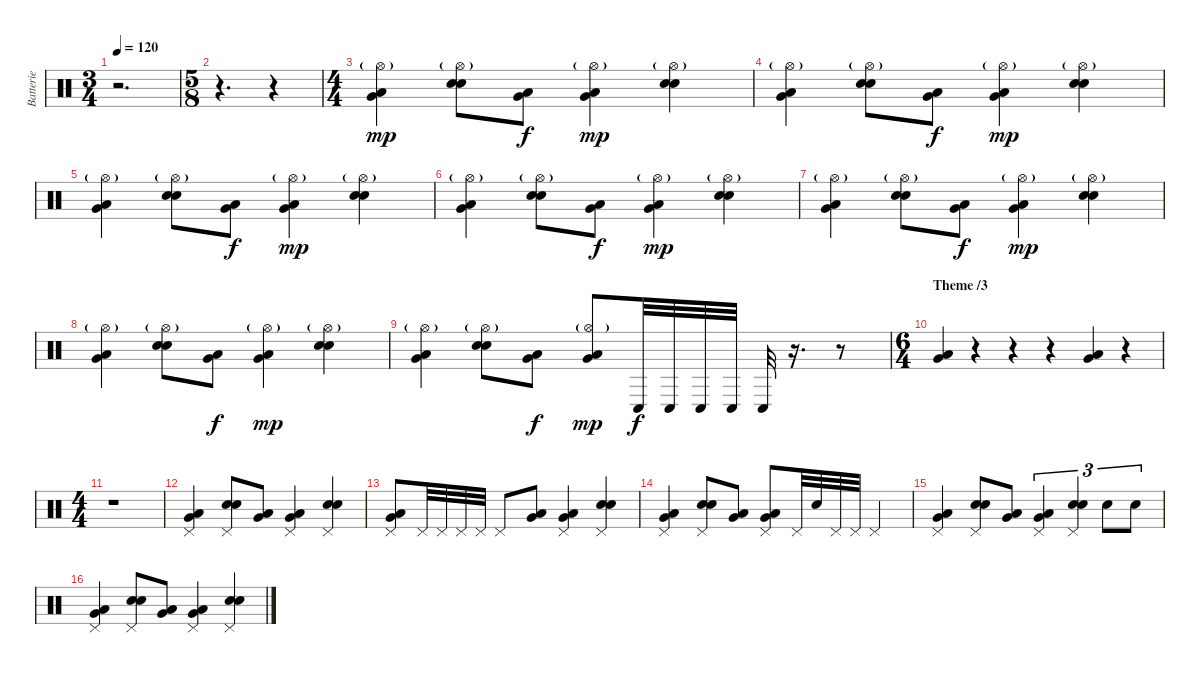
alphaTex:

\track ("Batterie" "Batterie") {instrument percussion}
\staff {score}
\articulation defaults
\ts (3 4)
\tempo 120
\clef neutral
\ks c
r.2{d dy f} |
\ts (5 8)
r.4{d} r.4 |
\ts (4 4)
("Hi-Hat (open)"{g} "Very Low Tom (hit)" "Low Floor Tom (hit)").4{dy mp} ("Hi-Hat (open)"{g} "Electric Snare (hit)" "Electric Snare (hit)").8 ("Very Low Tom (hit)" "Low Floor Tom (hit)").8{dy f} ("Hi-Hat (open)"{g} "Very Low Tom (hit)" "Low Floor Tom (hit)").4{dy mp} ("Hi-Hat (open)"{g} "Electric Snare (hit)" "Electric Snare (hit)").4 |
("Hi-Hat (open)"{g} "Very Low Tom (hit)" "Low Floor Tom (hit)").4 ("Hi-Hat (open)"{g} "Electric Snare (hit)" "Electric Snare (hit)").8 ("Very Low Tom (hit)" "Low Floor Tom (hit)").8{dy f} ("Hi-Hat (open)"{g} "Very Low Tom (hit)" "Low Floor Tom (hit)").4{dy mp} ("Hi-Hat (open)"{g} "Electric Snare (hit)" "Electric Snare (hit)").4 |
("Hi-Hat (open)"{g} "Very Low Tom (hit)" "Low Floor Tom (hit)").4 ("Hi-Hat (open)"{g} "Electric Snare (hit)" "Electric Snare (hit)").8 ("Very Low Tom (hit)" "Low Floor Tom (hit)").8{dy f} ("Hi-Hat (open)"{g} "Very Low Tom (hit)" "Low Floor Tom (hit)").4{dy mp} ("Hi-Hat (open)"{g} "Electric Snare (hit)" "Electric Snare (hit)").4 |
("Hi-Hat (open)"{g} "Very Low Tom (hit)" "Low Floor Tom (hit)").4 ("Hi-Hat (open)"{g} "Electric Snare (hit)" "Electric Snare (hit)").8 ("Very Low Tom (hit)" "Low Floor Tom (hit)").8{dy f} ("Hi-Hat (open)"{g} "Very Low Tom (hit)" "Low Floor Tom (hit)").4{dy mp} ("Hi-Hat (open)"{g} "Electric Snare (hit)" "Electric Snare (hit)").4 |
("Hi-Hat (open)"{g} "Very Low Tom (hit)" "Low Floor Tom (hit)").4 ("Hi-Hat (open)"{g} "Electric Snare (hit)" "Electric Snare (hit)").8 ("Very Low Tom (hit)" "Low Floor Tom (hit)").8{dy f} ("Hi-Hat (open)"{g} "Very Low Tom (hit)" "Low Floor Tom (hit)").4{dy mp} ("Hi-Hat (open)"{g} "Electric Snare (hit)" "Electric Snare (hit)").4 |
("Hi-Hat (open)"{g} "Very Low Tom (hit)" "Low Floor Tom (hit)").4 ("Hi-Hat (open)"{g} "Electric Snare (hit)" "Electric Snare (hit)").8 ("Very Low Tom (hit)" "Low Floor Tom (hit)").8{dy f} ("Hi-Hat (open)"{g} "Very Low Tom (hit)" "Low Floor Tom (hit)").4{dy mp} ("Hi-Hat (open)"{g} "Electric Snare (hit)" "Electric Snare (hit)").4 |
("Hi-Hat (open)"{g} "Very Low Tom (hit)" "Low Floor Tom (hit)").4 ("Hi-Hat (open)"{g} "Electric Snare (hit)" "Electric Snare (hit)").8 ("Very Low Tom (hit)" "Low Floor Tom (hit)").8{dy f} ("Hi-Hat (open)"{g} "Very Low Tom (hit)" "Low Floor Tom (hit)").8{dy mp} "Conga low (hit)".32{dy f} "Conga low (hit)".32 "Conga low (hit)".32 "Conga low (hit)".32 "Conga low (hit)".32 r.16{d} r.8 |
\ts (6 4)
\section ("" "Theme /3")
("Very Low Tom (hit)" "Low Floor Tom (hit)").4 r.4 r.4 r.4 ("Very Low Tom (hit)" "Low Floor Tom (hit)").4 r.4 |
\ts (4 4)
r.1 |
("Pedal Hi-Hat (hit)" "Very Low Tom (hit)" "Low Floor Tom (hit)").4 ("Pedal Hi-Hat (hit)" "Electric Snare (hit)" "Electric Snare (hit)").8 ("Very Low Tom (hit)" "Low Floor Tom (hit)").8 ("Pedal Hi-Hat (hit)" "Very Low Tom (hit)" "Low Floor Tom (hit)").4 ("Pedal Hi-Hat (hit)" "Electric Snare (hit)" "Electric Snare (hit)").4 |
("Pedal Hi-Hat (hit)" "Very Low Tom (hit)" "Low Floor Tom (hit)").8 "Pedal Hi-Hat (hit)".32 "Pedal Hi-Hat (hit)".32 "Pedal Hi-Hat (hit)".32 "Pedal Hi-Hat (hit)".32 "Pedal Hi-Hat (hit)".8 ("Very Low Tom (hit)" "Low Floor Tom (hit)").8 ("Pedal Hi-Hat (hit)" "Very Low Tom (hit)" "Low Floor Tom (hit)").4 ("Pedal Hi-Hat (hit)" "Electric Snare (hit)" "Electric Snare (hit)").4 |
("Pedal Hi-Hat (hit)" "Very Low Tom (hit)" "Low Floor Tom (hit)").4 ("Pedal Hi-Hat (hit)" "Electric Snare (hit)" "Electric Snare (hit)").8 ("Very Low Tom (hit)" "Low Floor Tom (hit)").8 ("Pedal Hi-Hat (hit)" "Very Low Tom (hit)" "Low Floor Tom (hit)").8 "Pedal Hi-Hat (hit)".32 "Snare (hit)".32 "Pedal Hi-Hat (hit)".32 "Pedal Hi-Hat (hit)".32 "Pedal Hi-Hat (hit)".4 |
("Pedal Hi-Hat (hit)" "Very Low Tom (hit)" "Low Floor Tom (hit)").4 ("Pedal Hi-Hat (hit)" "Electric Snare (hit)" "Electric Snare (hit)").8 ("Very Low Tom (hit)" "Low Floor Tom (hit)").8 ("Pedal Hi-Hat (hit)" "Very Low Tom (hit)" "Low Floor Tom (hit)").4{tu (3 2)} ("Pedal Hi-Hat (hit)" "Electric Snare (hit)" "Electric Snare (hit)").4{tu (3 2)} "Electric Snare (hit)".8{tu (3 2)} "Electric Snare (hit)".8{tu (3 2)} |
("Pedal Hi-Hat (hit)" "Very Low Tom (hit)" "Low Floor Tom (hit)").4 ("Pedal Hi-Hat (hit)" "Electric Snare (hit)" "Electric Snare (hit)").8 ("Very Low Tom (hit)" "Low Floor Tom (hit)").8 ("Pedal Hi-Hat (hit)" "Very Low Tom (hit)" "Low Floor Tom (hit)").4 ("Pedal Hi-Hat (hit)" "Electric Snare (hit)" "Electric Snare (hit)").4
